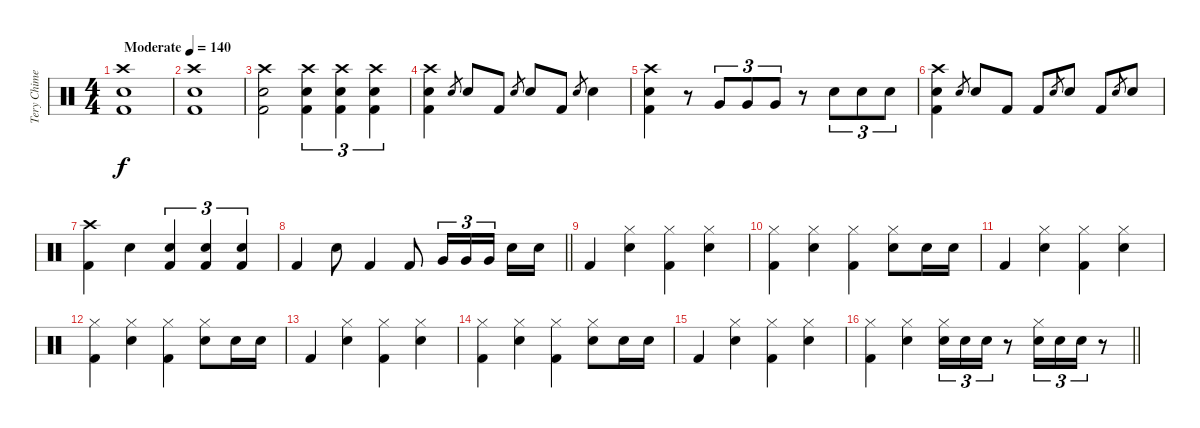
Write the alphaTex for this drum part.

\track ("Tery Chimes" "Tery Chime") {instrument percussion}
\staff {score}
\articulation defaults
\ts (4 4)
\tempo (140 "Moderate")
\clef neutral
\ks c
("Crash high (hit)" "Electric Snare (hit)" "Kick (hit) 2").1{dy f} |
("Crash high (hit)" "Electric Snare (hit)" "Kick (hit) 2").1 |
("Crash high (hit)" "Electric Snare (hit)" "Kick (hit) 2").2 ("Crash high (hit)" "Electric Snare (hit)" "Kick (hit) 2").4{tu (3 2)} ("Crash high (hit)" "Electric Snare (hit)" "Kick (hit) 2").4{tu (3 2)} ("Crash high (hit)" "Electric Snare (hit)" "Kick (hit) 2").4{tu (3 2)} |
("Crash high (hit)" "Electric Snare (hit)" "Kick (hit) 2").4 "Electric Snare (hit)".8{gr} "Electric Snare (hit)".8 "Kick (hit) 2".8 "Electric Snare (hit)".8{gr} "Electric Snare (hit)".8 "Kick (hit) 2".8 "Electric Snare (hit)".8{gr} "Electric Snare (hit)".4 |
("Crash high (hit)" "Electric Snare (hit)" "Kick (hit) 2").4 r.8 "Very Low Tom (hit)".8{tu (3 2)} "Very Low Tom (hit)".8{tu (3 2)} "Very Low Tom (hit)".8{tu (3 2)} r.8 "Electric Snare (hit)".8{tu (3 2)} "Electric Snare (hit)".8{tu (3 2)} "Electric Snare (hit)".8{tu (3 2)} |
("Crash high (hit)" "Electric Snare (hit)" "Kick (hit) 2").4 "Electric Snare (hit)".8{gr} "Electric Snare (hit)".8 "Kick (hit) 2".8 "Kick (hit) 2".8 "Electric Snare (hit)".8{gr} "Electric Snare (hit)".8 "Kick (hit) 2".8 "Electric Snare (hit)".8{gr} "Electric Snare (hit)".8 |
("Crash high (hit)" "Kick (hit) 2").4 "Electric Snare (hit)".4 ("Electric Snare (hit)" "Kick (hit) 2").4{tu (3 2)} ("Electric Snare (hit)" "Kick (hit) 2").4{tu (3 2)} ("Electric Snare (hit)" "Kick (hit) 2").4{tu (3 2)} |
\barLineRight lightlight "Kick (hit) 2".4 "Electric Snare (hit)".8 "Kick (hit) 2".4 "Kick (hit) 2".8 "Very Low Tom (hit)".16{tu (3 2)} "Very Low Tom (hit)".16{tu (3 2)} "Very Low Tom (hit)".16{tu (3 2) beam splitsecondary} "Electric Snare (hit)".16 "Electric Snare (hit)".16
|
"Kick (hit) 2".4 ("Hi-Hat (closed)" "Electric Snare (hit)").4 ("Hi-Hat (closed)" "Kick (hit) 2").4 ("Hi-Hat (closed)" "Electric Snare (hit)").4 |
("Hi-Hat (closed)" "Kick (hit) 2").4 ("Hi-Hat (closed)" "Electric Snare (hit)").4 ("Hi-Hat (closed)" "Kick (hit) 2").4 ("Hi-Hat (closed)" "Electric Snare (hit)").8 "Electric Snare (hit)".16 "Electric Snare (hit)".16 |
"Kick (hit) 2".4 ("Hi-Hat (closed)" "Electric Snare (hit)").4 ("Hi-Hat (closed)" "Kick (hit) 2").4 ("Hi-Hat (closed)" "Electric Snare (hit)").4 |
("Hi-Hat (closed)" "Kick (hit) 2").4 ("Hi-Hat (closed)" "Electric Snare (hit)").4 ("Hi-Hat (closed)" "Kick (hit) 2").4 ("Hi-Hat (closed)" "Electric Snare (hit)").8 "Electric Snare (hit)".16 "Electric Snare (hit)".16 |
"Kick (hit) 2".4 ("Hi-Hat (closed)" "Electric Snare (hit)").4 ("Hi-Hat (closed)" "Kick (hit) 2").4 ("Hi-Hat (closed)" "Electric Snare (hit)").4 |
("Hi-Hat (closed)" "Kick (hit) 2").4 ("Hi-Hat (closed)" "Electric Snare (hit)").4 ("Hi-Hat (closed)" "Kick (hit) 2").4 ("Hi-Hat (closed)" "Electric Snare (hit)").8 "Electric Snare (hit)".16 "Electric Snare (hit)".16 |
"Kick (hit) 2".4 ("Hi-Hat (closed)" "Electric Snare (hit)").4 ("Hi-Hat (closed)" "Kick (hit) 2").4 ("Hi-Hat (closed)" "Electric Snare (hit)").4 |
\barLineRight lightlight
("Hi-Hat (closed)" "Kick (hit) 2").4 ("Hi-Hat (closed)" "Electric Snare (hit)").4 ("Hi-Hat (closed)" "Electric Snare (hit)").16{tu (3 2)} "Electric Snare (hit)".16{tu (3 2)} "Electric Snare (hit)".16{tu (3 2)} r.8 ("Hi-Hat (closed)" "Electric Snare (hit)").16{tu (3 2)} "Electric Snare (hit)".16{tu (3 2)} "Electric Snare (hit)".16{tu (3 2)} r.8
